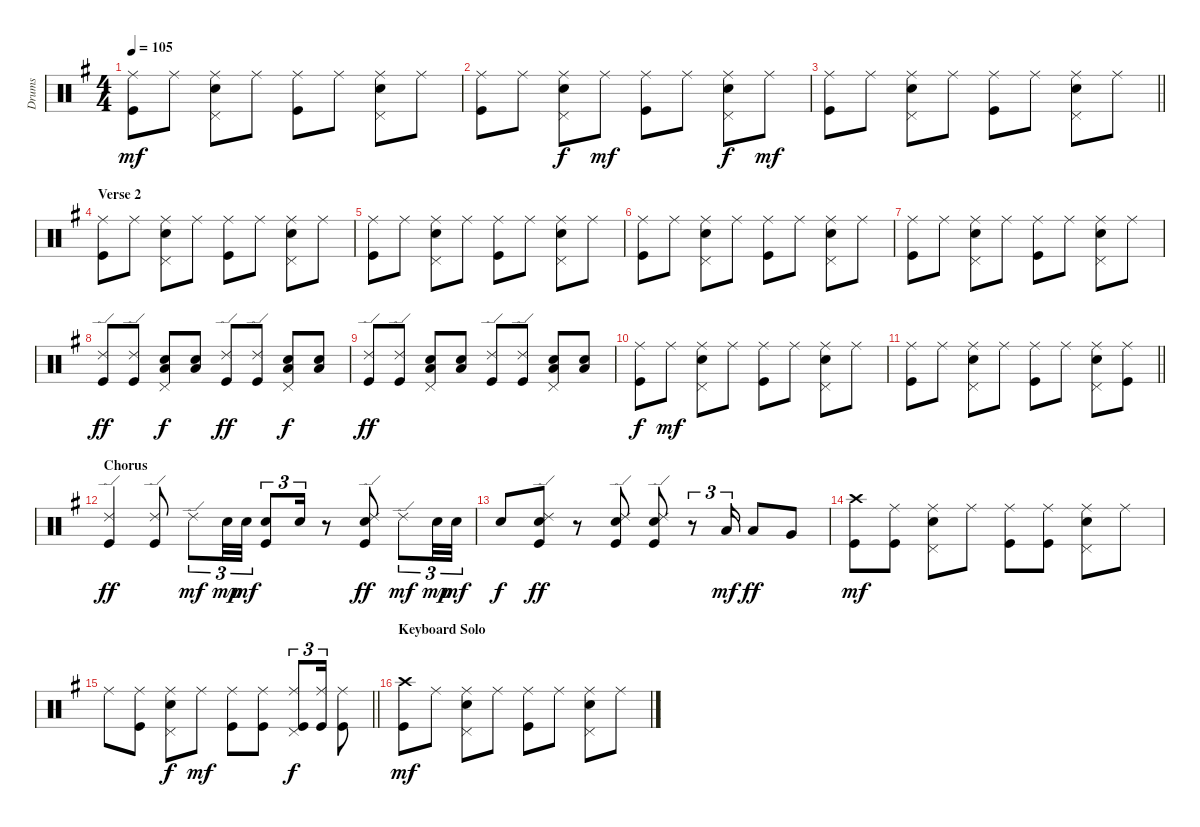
\track ("Drums" "Drums") {instrument percussion}
\staff {score}
\articulation defaults
\ts (4 4)
\tempo 105
\clef neutral
\ks eminor
("Ride (middle)" "Kick (hit)").8{dy mf} "Ride (middle)".8 ("Ride (middle)" "Pedal Hi-Hat (hit)" "Snare (hit) 2").8 "Ride (middle)".8 ("Ride (middle)" "Kick (hit)").8 "Ride (middle)".8 ("Ride (middle)" "Pedal Hi-Hat (hit)" "Snare (hit) 2").8 "Ride (middle)".8 |
("Ride (middle)" "Kick (hit)").8 "Ride (middle)".8 ("Ride (middle)" "Pedal Hi-Hat (hit)" "Snare (hit) 2").8{dy f} "Ride (middle)".8{dy mf} ("Ride (middle)" "Kick (hit)").8 "Ride (middle)".8 ("Ride (middle)" "Pedal Hi-Hat (hit)" "Snare (hit) 2").8{dy f} "Ride (middle)".8{dy mf} |
\barLineRight lightlight
("Ride (middle)" "Kick (hit)").8 "Ride (middle)".8 ("Ride (middle)" "Pedal Hi-Hat (hit)" "Snare (hit) 2").8 "Ride (middle)".8 ("Ride (middle)" "Kick (hit)").8 "Ride (middle)".8 ("Ride (middle)" "Pedal Hi-Hat (hit)" "Snare (hit) 2").8 "Ride (middle)".8 |
\section ("" "Verse 2")
("Ride (middle)" "Kick (hit)").8 "Ride (middle)".8 ("Ride (middle)" "Pedal Hi-Hat (hit)" "Snare (hit) 2").8 "Ride (middle)".8 ("Ride (middle)" "Kick (hit)").8 "Ride (middle)".8 ("Ride (middle)" "Pedal Hi-Hat (hit)" "Snare (hit) 2").8 "Ride (middle)".8 |
("Ride (middle)" "Kick (hit)").8 "Ride (middle)".8 ("Ride (middle)" "Pedal Hi-Hat (hit)" "Snare (hit) 2").8 "Ride (middle)".8 ("Ride (middle)" "Kick (hit)").8 "Ride (middle)".8 ("Ride (middle)" "Pedal Hi-Hat (hit)" "Snare (hit) 2").8 "Ride (middle)".8 |
("Ride (middle)" "Kick (hit)").8 "Ride (middle)".8 ("Ride (middle)" "Pedal Hi-Hat (hit)" "Snare (hit) 2").8 "Ride (middle)".8 ("Ride (middle)" "Kick (hit)").8 "Ride (middle)".8 ("Ride (middle)" "Pedal Hi-Hat (hit)" "Snare (hit) 2").8 "Ride (middle)".8 |
("Ride (middle)" "Kick (hit)").8 "Ride (middle)".8 ("Ride (middle)" "Pedal Hi-Hat (hit)" "Snare (hit) 2").8 "Ride (middle)".8 ("Ride (middle)" "Kick (hit)").8 "Ride (middle)".8 ("Ride (middle)" "Pedal Hi-Hat (hit)" "Snare (hit) 2").8 "Ride (middle)".8 |
("Ride (edge) 2" "Kick (hit)").8{dy ff} ("Ride (edge) 2" "Kick (hit)").8 ("Pedal Hi-Hat (hit)" "Snare (hit) 2" "Low Tom (hit)").8{dy f} ("Snare (hit) 2" "Low Tom (hit)").8 ("Ride (edge) 2" "Kick (hit)").8{dy ff} ("Ride (edge) 2" "Kick (hit)").8 ("Pedal Hi-Hat (hit)" "Snare (hit) 2" "Low Tom (hit)").8{dy f} ("Snare (hit) 2" "Low Tom (hit)").8 |
("Ride (edge) 2" "Kick (hit)").8{dy ff} ("Ride (edge) 2" "Kick (hit)").8 ("Pedal Hi-Hat (hit)" "Snare (hit) 2" "Low Tom (hit)").8 ("Snare (hit) 2" "Low Tom (hit)").8 ("Ride (edge) 2" "Kick (hit)").8 ("Ride (edge) 2" "Kick (hit)").8 ("Pedal Hi-Hat (hit)" "Snare (hit) 2" "Low Tom (hit)").8 ("Snare (hit) 2" "Low Tom (hit)").8 |
("Ride (middle)" "Kick (hit)").8{dy f} "Ride (middle)".8{dy mf} ("Ride (middle)" "Pedal Hi-Hat (hit)" "Snare (hit) 2").8 "Ride (middle)".8 ("Ride (middle)" "Kick (hit)").8 "Ride (middle)".8 ("Ride (middle)" "Pedal Hi-Hat (hit)" "Snare (hit) 2").8 "Ride (middle)".8 |
\barLineRight lightlight
("Ride (middle)" "Kick (hit)").8 "Ride (middle)".8 ("Ride (middle)" "Pedal Hi-Hat (hit)" "Snare (hit) 2").8 "Ride (middle)".8 ("Ride (middle)" "Kick (hit)").8 "Ride (middle)".8 ("Ride (middle)" "Pedal Hi-Hat (hit)" "Snare (hit) 2").8 ("Ride (middle)" "Kick (hit)").8 |
\section ("" "Chorus")
("Ride (edge) 2" "Kick (hit)").4{dy ff} ("Ride (edge) 2" "Kick (hit)").8 "Ride (edge) 2".8{tu (3 2) dy mf} "Snare (hit) 2".32{tu (3 2) dy mp} "Snare (hit) 2".32{tu (3 2) dy mf} ("Snare (hit) 2" "Kick (hit)").8{tu (3 2)} "Snare (hit) 2".16{tu (3 2)} r.8 ("Ride (edge) 2" "Snare (hit) 2" "Kick (hit)").8{dy ff} "Ride (edge) 2".8{tu (3 2) dy mf} "Snare (hit) 2".32{tu (3 2) dy mp} "Snare (hit) 2".32{tu (3 2) dy mf} |
"Snare (hit) 2".8{dy f} ("Ride (edge) 2" "Snare (hit) 2" "Kick (hit)").8{dy ff} r.8 ("Ride (edge) 2" "Snare (hit) 2" "Kick (hit)").8 ("Ride (edge) 2" "Snare (hit) 2" "Kick (hit)").8 r.8{tu (3 2)} "Low Tom (hit)".16{tu (3 2) dy mf} "Low Tom (hit)".8{dy ff} "Very Low Tom (hit)".8 |
("Crash high (hit)" "Kick (hit)").8{dy mf} ("Ride (middle)" "Kick (hit)").8 ("Ride (middle)" "Pedal Hi-Hat (hit)" "Snare (hit) 2").8 "Ride (middle)".8 ("Ride (middle)" "Kick (hit)").8 ("Ride (middle)" "Kick (hit)").8 ("Ride (middle)" "Pedal Hi-Hat (hit)" "Snare (hit) 2").8 "Ride (middle)".8 |
\barLineRight lightlight "Ride (middle)".8
("Ride (middle)" "Kick (hit)").8 ("Ride (middle)" "Pedal Hi-Hat (hit)" "Snare (hit) 2").8{dy f} "Ride (middle)".8{dy mf} ("Ride (middle)" "Kick (hit)").8 ("Ride (middle)" "Kick (hit)").8 ("Ride (middle)" "Pedal Hi-Hat (hit)" "Kick (hit)").8{tu (3 2) dy f} ("Ride (middle)" "Kick (hit)").16{tu (3 2)} ("Ride (middle)" "Kick (hit)").8 |
\section ("" "Keyboard Solo")
("Crash high (hit)" "Kick (hit)").8{dy mf} "Ride (middle)".8 ("Ride (middle)" "Pedal Hi-Hat (hit)" "Snare (hit) 2").8 "Ride (middle)".8 ("Ride (middle)" "Kick (hit)").8 "Ride (middle)".8 ("Ride (middle)" "Pedal Hi-Hat (hit)" "Snare (hit) 2").8 "Ride (middle)".8
